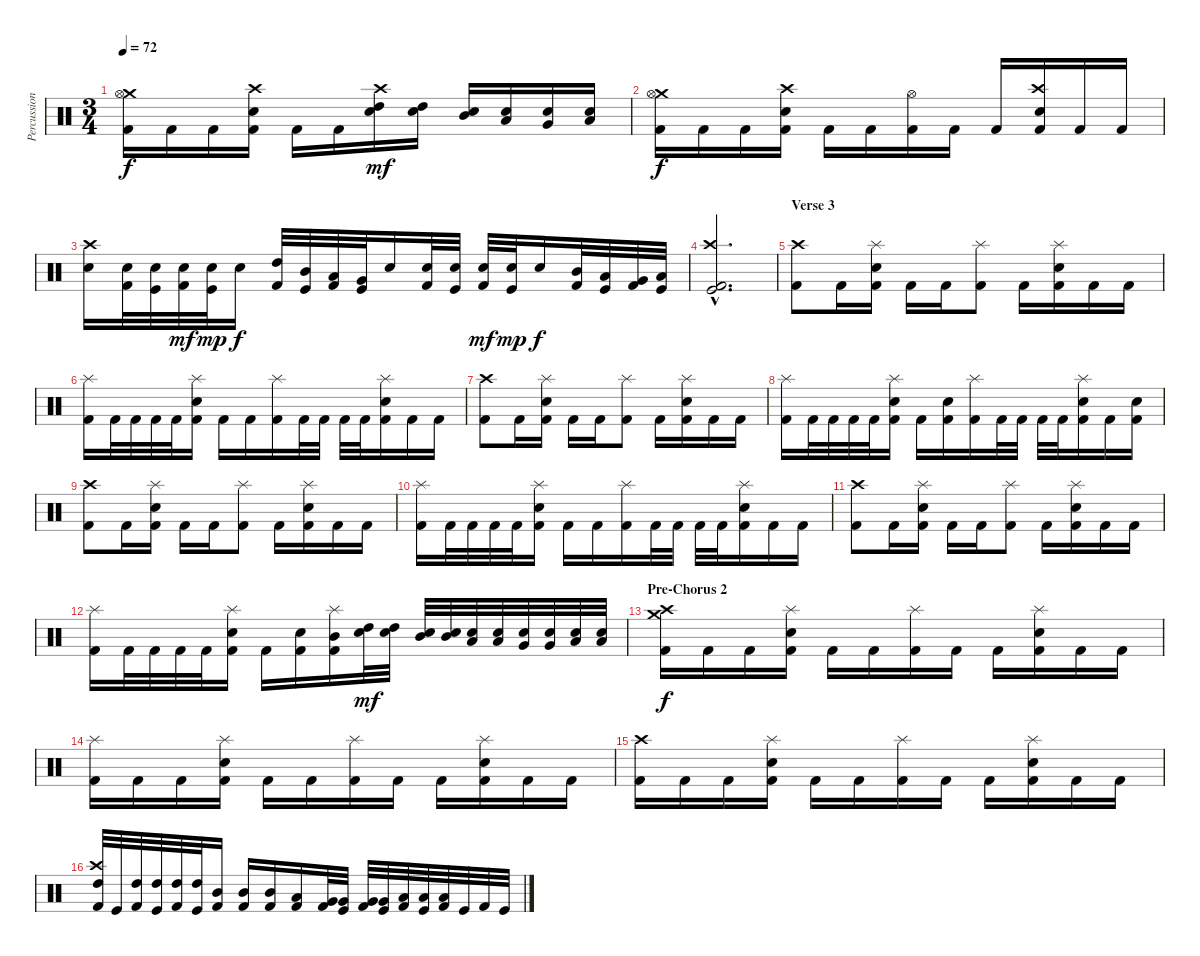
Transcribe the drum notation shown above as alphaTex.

\track ("Percussion" "Percussion") {instrument percussion}
\staff {score}
\articulation defaults
\ts (3 4)
\tempo 72
\clef neutral
\ks c
("Crash medium (hit)" "Hi-Hat (open)" "Kick (hit) 2").16{dy f} "Kick (hit) 2".16 "Kick (hit) 2".16 ("Crash high (hit)" "Electric Snare (hit)" "Kick (hit) 2").16 "Kick (hit) 2".16 "Kick (hit) 2".16 ("Crash high (hit)" "Electric Snare (hit)" "High Tom (hit)").16{dy mf} ("Electric Snare (hit)" "High Tom (hit)").16 ("Electric Snare (hit)" "Mid Tom (hit)").16 ("Electric Snare (hit)" "Low Tom (hit)").16 ("Electric Snare (hit)" "Very Low Tom (hit)").16 ("Electric Snare (hit)" "Low Floor Tom (hit)").16 |
("Crash medium (hit)" "Hi-Hat (open)" "Kick (hit) 2").16{dy f} "Kick (hit) 2".16 "Kick (hit) 2".16 ("Crash high (hit)" "Electric Snare (hit)" "Kick (hit) 2").16 "Kick (hit) 2".16 "Kick (hit) 2".16 ("Hi-Hat (open)" "Kick (hit) 2").16 "Kick (hit) 2".16 "Kick (hit) 2".16 ("Crash high (hit)" "Electric Snare (hit)" "Kick (hit) 2").16 "Kick (hit) 2".16 "Kick (hit) 2".16 |
("Crash high (hit)" "Electric Snare (hit)").16 ("Electric Snare (hit)" "Kick (hit) 2").32 ("Electric Snare (hit)" "Kick (hit)").32 ("Electric Snare (hit)" "Kick (hit) 2").32{dy mf} ("Electric Snare (hit)" "Kick (hit)").32{dy mp} "Electric Snare (hit)".16{dy f} ("High Tom (hit)" "Kick (hit) 2").32 ("Mid Tom (hit)" "Kick (hit)").32 ("Low Tom (hit)" "Kick (hit) 2").32 ("Very Low Tom (hit)" "Kick (hit)").32 "Electric Snare (hit)".16 ("Electric Snare (hit)" "Kick (hit) 2").32 ("Electric Snare (hit)" "Kick (hit)").32 ("Electric Snare (hit)" "Kick (hit) 2").32{dy mf} ("Electric Snare (hit)" "Kick (hit)").32{dy mp} "Electric Snare (hit)".16{dy f} ("Mid Tom (hit)" "Kick (hit) 2").32 ("Low Tom (hit)" "Kick (hit)").32 ("Very Low Tom (hit)" "Kick (hit) 2").32 ("Low Floor Tom (hit)" "Kick (hit)").32 |
("Crash high (hit)"{hac} "Kick (hit) 2"{hac} "Kick (hit)"{hac}).2{d} |
\section ("" "Verse 3")
("Crash high (hit)" "Kick (hit) 2").8 "Kick (hit) 2".16 ("Splash (hit)" "Electric Snare (hit)" "Kick (hit) 2").16 "Kick (hit) 2".16 "Kick (hit) 2".16 ("Splash (hit)" "Kick (hit) 2").8 "Kick (hit) 2".16 ("Splash (hit)" "Electric Snare (hit)" "Kick (hit) 2").16 "Kick (hit) 2".16 "Kick (hit) 2".16 |
("Splash (hit)" "Kick (hit) 2").16 "Kick (hit) 2".32 "Kick (hit) 2".32 "Kick (hit) 2".32 "Kick (hit) 2".32 ("Splash (hit)" "Electric Snare (hit)" "Kick (hit) 2").16 "Kick (hit) 2".16 "Kick (hit) 2".16 ("Splash (hit)" "Kick (hit) 2").16 "Kick (hit) 2".32 "Kick (hit) 2".32 "Kick (hit) 2".32 "Kick (hit) 2".32 ("Splash (hit)" "Electric Snare (hit)" "Kick (hit) 2").16 "Kick (hit) 2".16 "Kick (hit) 2".16 |
("Crash high (hit)" "Kick (hit) 2").8 "Kick (hit) 2".16 ("Splash (hit)" "Electric Snare (hit)" "Kick (hit) 2").16 "Kick (hit) 2".16 "Kick (hit) 2".16 ("Splash (hit)" "Kick (hit) 2").8 "Kick (hit) 2".16 ("Splash (hit)" "Electric Snare (hit)" "Kick (hit) 2").16 "Kick (hit) 2".16 "Kick (hit) 2".16 |
("Splash (hit)" "Kick (hit) 2").16 "Kick (hit) 2".32 "Kick (hit) 2".32 "Kick (hit) 2".32 "Kick (hit) 2".32 ("Splash (hit)" "Electric Snare (hit)" "Kick (hit) 2").16 "Kick (hit) 2".16 ("Electric Snare (hit)" "Kick (hit) 2").16 ("Splash (hit)" "Kick (hit) 2").16 "Kick (hit) 2".32 "Kick (hit) 2".32 "Kick (hit) 2".32 "Kick (hit) 2".32 ("Splash (hit)" "Electric Snare (hit)" "Kick (hit) 2").16 "Kick (hit) 2".16 ("Electric Snare (hit)" "Kick (hit) 2").16 |
("Crash high (hit)" "Kick (hit) 2").8 "Kick (hit) 2".16 ("Splash (hit)" "Electric Snare (hit)" "Kick (hit) 2").16 "Kick (hit) 2".16 "Kick (hit) 2".16 ("Splash (hit)" "Kick (hit) 2").8 "Kick (hit) 2".16 ("Splash (hit)" "Electric Snare (hit)" "Kick (hit) 2").16 "Kick (hit) 2".16 "Kick (hit) 2".16 |
("Splash (hit)" "Kick (hit) 2").16 "Kick (hit) 2".32 "Kick (hit) 2".32 "Kick (hit) 2".32 "Kick (hit) 2".32 ("Splash (hit)" "Electric Snare (hit)" "Kick (hit) 2").16 "Kick (hit) 2".16 "Kick (hit) 2".16 ("Splash (hit)" "Kick (hit) 2").16 "Kick (hit) 2".32 "Kick (hit) 2".32 "Kick (hit) 2".32 "Kick (hit) 2".32 ("Splash (hit)" "Electric Snare (hit)" "Kick (hit) 2").16 "Kick (hit) 2".16 "Kick (hit) 2".16 |
("Crash high (hit)" "Kick (hit) 2").8 "Kick (hit) 2".16 ("Splash (hit)" "Electric Snare (hit)" "Kick (hit) 2").16 "Kick (hit) 2".16 "Kick (hit) 2".16 ("Splash (hit)" "Kick (hit) 2").8 "Kick (hit) 2".16 ("Splash (hit)" "Electric Snare (hit)" "Kick (hit) 2").16 "Kick (hit) 2".16 "Kick (hit) 2".16 |
("Splash (hit)" "Kick (hit) 2").16 "Kick (hit) 2".32 "Kick (hit) 2".32 "Kick (hit) 2".32 "Kick (hit) 2".32 ("Splash (hit)" "Electric Snare (hit)" "Kick (hit) 2").16 "Kick (hit) 2".16 ("Electric Snare (hit)" "Kick (hit) 2").16 ("Splash (hit)" "Mid Tom (hit)" "Kick (hit) 2").16 ("High Tom (hit)" "Electric Snare (hit)").32{dy mf} ("High Tom (hit)" "Electric Snare (hit)").32 ("Mid Tom (hit)" "Electric Snare (hit)").32 ("Mid Tom (hit)" "Electric Snare (hit)").32 ("Low Tom (hit)" "Electric Snare (hit)").32 ("Low Tom (hit)" "Electric Snare (hit)").32 ("Very Low Tom (hit)" "Electric Snare (hit)").32 ("Very Low Tom (hit)" "Electric Snare (hit)").32 ("Low Floor Tom (hit)" "Electric Snare (hit)").32 ("Low Floor Tom (hit)" "Electric Snare (hit)").32 |
\section ("" "Pre-Chorus 2")
("Crash medium (hit)" "Crash high (hit)" "Kick (hit) 2").16{dy f} "Kick (hit) 2".16 "Kick (hit) 2".16 ("Electric Snare (hit)" "Splash (hit)" "Kick (hit) 2").16 "Kick (hit) 2".16 "Kick (hit) 2".16 ("Splash (hit)" "Kick (hit) 2").16 "Kick (hit) 2".16 "Kick (hit) 2".16 ("Electric Snare (hit)" "Splash (hit)" "Kick (hit) 2").16 "Kick (hit) 2".16 "Kick (hit) 2".16 |
("Splash (hit)" "Kick (hit) 2").16 "Kick (hit) 2".16 "Kick (hit) 2".16 ("Electric Snare (hit)" "Splash (hit)" "Kick (hit) 2").16 "Kick (hit) 2".16 "Kick (hit) 2".16 ("Splash (hit)" "Kick (hit) 2").16 "Kick (hit) 2".16 "Kick (hit) 2".16 ("Electric Snare (hit)" "Splash (hit)" "Kick (hit) 2").16 "Kick (hit) 2".16 "Kick (hit) 2".16 |
("Crash high (hit)" "Kick (hit) 2").16 "Kick (hit) 2".16 "Kick (hit) 2".16 ("Electric Snare (hit)" "Splash (hit)" "Kick (hit) 2").16 "Kick (hit) 2".16 "Kick (hit) 2".16 ("Splash (hit)" "Kick (hit) 2").16 "Kick (hit) 2".16 "Kick (hit) 2".16 ("Electric Snare (hit)" "Splash (hit)" "Kick (hit) 2").16 "Kick (hit) 2".16 "Kick (hit) 2".16 |
("Crash high (hit)" "High Tom (hit)" "Kick (hit) 2").32 "Kick (hit)".32 ("High Tom (hit)" "Kick (hit) 2").32 ("High Tom (hit)" "Kick (hit)").32 ("High Tom (hit)" "Kick (hit) 2").32 ("High Tom (hit)" "Kick (hit)").32 ("Mid Tom (hit)" "Kick (hit) 2").16 ("Mid Tom (hit)" "Kick (hit) 2").16 ("Mid Tom (hit)" "Kick (hit) 2").16 ("Low Tom (hit)" "Kick (hit) 2").16 ("Very Low Tom (hit)" "Kick (hit) 2").32 ("Very Low Tom (hit)" "Kick (hit)").32 ("Very Low Tom (hit)" "Kick (hit) 2").32 ("Very Low Tom (hit)" "Kick (hit)").32 ("Low Floor Tom (hit)" "Kick (hit) 2").32 ("Low Floor Tom (hit)" "Kick (hit)").32 ("Low Floor Tom (hit)" "Kick (hit) 2").32 "Kick (hit)".32 "Kick (hit) 2".32 "Kick (hit)".32
